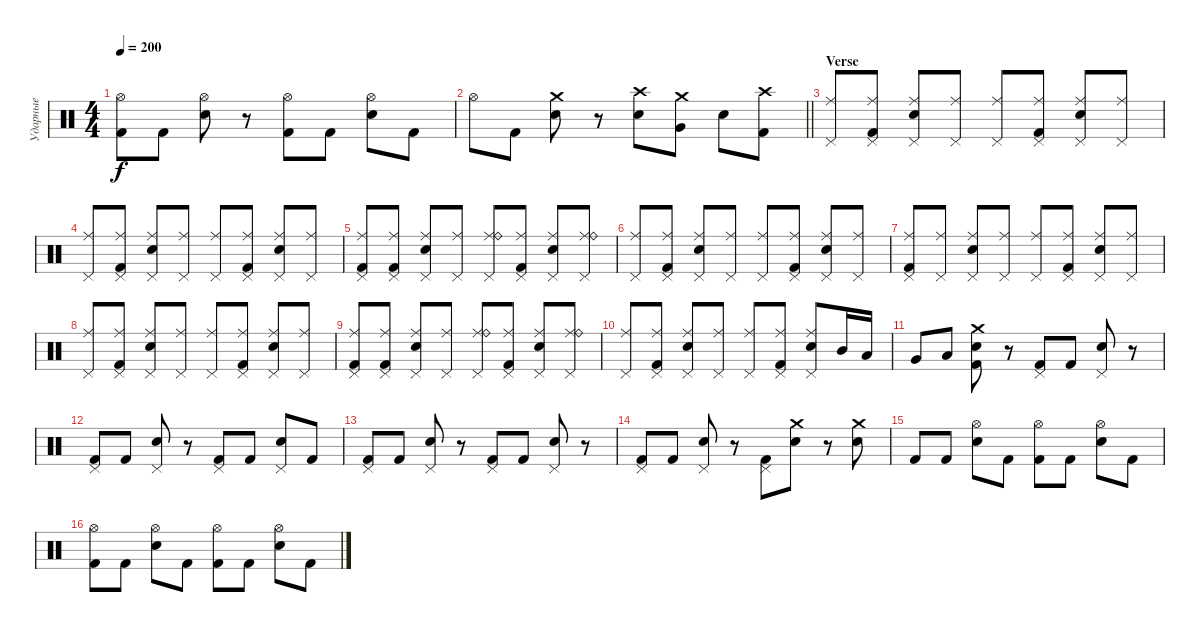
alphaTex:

\track ("Ударные" "Ударные") {instrument percussion}
\staff {score}
\articulation defaults
\ts (4 4)
\tempo 200
\clef neutral
\ks c
("Hi-Hat (open)" "Kick (hit) 2").8{dy f} "Kick (hit) 2".8 ("Hi-Hat (open)" "Electric Snare (hit)").8 r.8 ("Hi-Hat (open)" "Kick (hit) 2").8 "Kick (hit) 2".8 ("Hi-Hat (open)" "Electric Snare (hit)").8 "Kick (hit) 2".8 |
\barLineRight lightlight "Hi-Hat (open)".8 "Kick (hit) 2".8
("Crash medium (hit)" "Electric Snare (hit)").8 r.8 ("Crash high (hit)" "Electric Snare (hit)").8 ("Crash medium (hit)" "Very Low Tom (hit)").8 "Electric Snare (hit)".8 ("Crash high (hit)" "Kick (hit) 2").8 |
\section ("" "Verse")
("Ride (middle)" "Pedal Hi-Hat (hit)").8 ("Ride (middle)" "Pedal Hi-Hat (hit)" "Kick (hit) 2").8 ("Ride (middle)" "Pedal Hi-Hat (hit)" "Electric Snare (hit)").8 ("Ride (middle)" "Pedal Hi-Hat (hit)").8 ("Ride (middle)" "Pedal Hi-Hat (hit)").8 ("Ride (middle)" "Pedal Hi-Hat (hit)" "Kick (hit) 2").8 ("Ride (middle)" "Pedal Hi-Hat (hit)" "Electric Snare (hit)").8 ("Ride (middle)" "Pedal Hi-Hat (hit)").8 |
("Ride (middle)" "Pedal Hi-Hat (hit)").8 ("Ride (middle)" "Pedal Hi-Hat (hit)" "Kick (hit) 2").8 ("Ride (middle)" "Pedal Hi-Hat (hit)" "Electric Snare (hit)").8 ("Ride (middle)" "Pedal Hi-Hat (hit)").8 ("Ride (middle)" "Pedal Hi-Hat (hit)").8 ("Ride (middle)" "Pedal Hi-Hat (hit)" "Kick (hit) 2").8 ("Ride (middle)" "Pedal Hi-Hat (hit)" "Electric Snare (hit)").8 ("Ride (middle)" "Pedal Hi-Hat (hit)").8 |
("Ride (middle)" "Pedal Hi-Hat (hit)" "Kick (hit) 2").8 ("Ride (middle)" "Pedal Hi-Hat (hit)" "Kick (hit) 2").8 ("Ride (middle)" "Pedal Hi-Hat (hit)" "Electric Snare (hit)").8 ("Ride (middle)" "Pedal Hi-Hat (hit)").8 ("Ride (middle)" "Pedal Hi-Hat (hit)" "Ride (bell)").8 ("Ride (middle)" "Pedal Hi-Hat (hit)" "Kick (hit) 2").8 ("Ride (middle)" "Pedal Hi-Hat (hit)" "Electric Snare (hit)").8 ("Ride (middle)" "Pedal Hi-Hat (hit)" "Ride (bell)").8 |
("Ride (middle)" "Pedal Hi-Hat (hit)").8 ("Ride (middle)" "Pedal Hi-Hat (hit)" "Kick (hit) 2").8 ("Ride (middle)" "Pedal Hi-Hat (hit)" "Electric Snare (hit)").8 ("Ride (middle)" "Pedal Hi-Hat (hit)").8 ("Ride (middle)" "Pedal Hi-Hat (hit)").8 ("Ride (middle)" "Pedal Hi-Hat (hit)" "Kick (hit) 2").8 ("Ride (middle)" "Pedal Hi-Hat (hit)" "Electric Snare (hit)").8 ("Ride (middle)" "Pedal Hi-Hat (hit)").8 |
("Ride (middle)" "Pedal Hi-Hat (hit)" "Kick (hit) 2").8 ("Ride (middle)" "Pedal Hi-Hat (hit)").8 ("Ride (middle)" "Pedal Hi-Hat (hit)" "Electric Snare (hit)").8 ("Ride (middle)" "Pedal Hi-Hat (hit)").8 ("Ride (middle)" "Pedal Hi-Hat (hit)").8 ("Ride (middle)" "Pedal Hi-Hat (hit)" "Kick (hit) 2").8 ("Ride (middle)" "Pedal Hi-Hat (hit)" "Electric Snare (hit)").8 ("Ride (middle)" "Pedal Hi-Hat (hit)").8 |
("Ride (middle)" "Pedal Hi-Hat (hit)").8 ("Ride (middle)" "Pedal Hi-Hat (hit)" "Kick (hit) 2").8 ("Ride (middle)" "Pedal Hi-Hat (hit)" "Electric Snare (hit)").8 ("Ride (middle)" "Pedal Hi-Hat (hit)").8 ("Ride (middle)" "Pedal Hi-Hat (hit)").8 ("Ride (middle)" "Pedal Hi-Hat (hit)" "Kick (hit) 2").8 ("Ride (middle)" "Pedal Hi-Hat (hit)" "Electric Snare (hit)").8 ("Ride (middle)" "Pedal Hi-Hat (hit)").8 |
("Ride (middle)" "Pedal Hi-Hat (hit)" "Kick (hit) 2").8 ("Ride (middle)" "Pedal Hi-Hat (hit)" "Kick (hit) 2").8 ("Ride (middle)" "Pedal Hi-Hat (hit)" "Electric Snare (hit)").8 ("Ride (middle)" "Pedal Hi-Hat (hit)").8 ("Ride (middle)" "Pedal Hi-Hat (hit)" "Ride (bell)").8 ("Ride (middle)" "Pedal Hi-Hat (hit)" "Kick (hit) 2").8 ("Ride (middle)" "Pedal Hi-Hat (hit)" "Electric Snare (hit)").8 ("Ride (middle)" "Pedal Hi-Hat (hit)" "Ride (bell)").8 |
("Ride (middle)" "Pedal Hi-Hat (hit)").8 ("Ride (middle)" "Pedal Hi-Hat (hit)" "Kick (hit) 2").8 ("Ride (middle)" "Pedal Hi-Hat (hit)" "Electric Snare (hit)").8 ("Ride (middle)" "Pedal Hi-Hat (hit)").8 ("Ride (middle)" "Pedal Hi-Hat (hit)").8 ("Ride (middle)" "Pedal Hi-Hat (hit)" "Kick (hit) 2").8 ("Ride (middle)" "Pedal Hi-Hat (hit)" "Electric Snare (hit)").8 "Mid Tom (hit)".16 "Low Tom (hit)".16 |
"Very Low Tom (hit)".8 "Low Floor Tom (hit)".8 ("Crash medium (hit)" "Electric Snare (hit)" "Kick (hit) 2").8 r.8 ("Pedal Hi-Hat (hit)" "Kick (hit) 2").8 "Kick (hit) 2".8 ("Pedal Hi-Hat (hit)" "Electric Snare (hit)").8 r.8 |
("Pedal Hi-Hat (hit)" "Kick (hit) 2").8 "Kick (hit) 2".8 ("Pedal Hi-Hat (hit)" "Electric Snare (hit)").8 r.8 ("Pedal Hi-Hat (hit)" "Kick (hit) 2").8 "Kick (hit) 2".8 ("Pedal Hi-Hat (hit)" "Electric Snare (hit)").8 "Kick (hit) 2".8 |
("Pedal Hi-Hat (hit)" "Kick (hit) 2").8 "Kick (hit) 2".8 ("Pedal Hi-Hat (hit)" "Electric Snare (hit)").8 r.8 ("Pedal Hi-Hat (hit)" "Kick (hit) 2").8 "Kick (hit) 2".8 ("Pedal Hi-Hat (hit)" "Electric Snare (hit)").8 r.8 |
("Pedal Hi-Hat (hit)" "Kick (hit) 2").8 "Kick (hit) 2".8 ("Pedal Hi-Hat (hit)" "Electric Snare (hit)").8 r.8 ("Pedal Hi-Hat (hit)" "Kick (hit) 2").8 ("Crash medium (hit)" "Electric Snare (hit)").8 r.8 ("Crash medium (hit)" "Electric Snare (hit)").8 |
"Kick (hit) 2".8 "Kick (hit) 2".8 ("Hi-Hat (open)" "Electric Snare (hit)").8 "Kick (hit) 2".8 ("Hi-Hat (open)" "Kick (hit) 2").8 "Kick (hit) 2".8 ("Hi-Hat (open)" "Electric Snare (hit)").8 "Kick (hit) 2".8 |
("Hi-Hat (open)" "Kick (hit) 2").8 "Kick (hit) 2".8 ("Hi-Hat (open)" "Electric Snare (hit)").8 "Kick (hit) 2".8 ("Hi-Hat (open)" "Kick (hit) 2").8 "Kick (hit) 2".8 ("Hi-Hat (open)" "Electric Snare (hit)").8 "Kick (hit) 2".8
